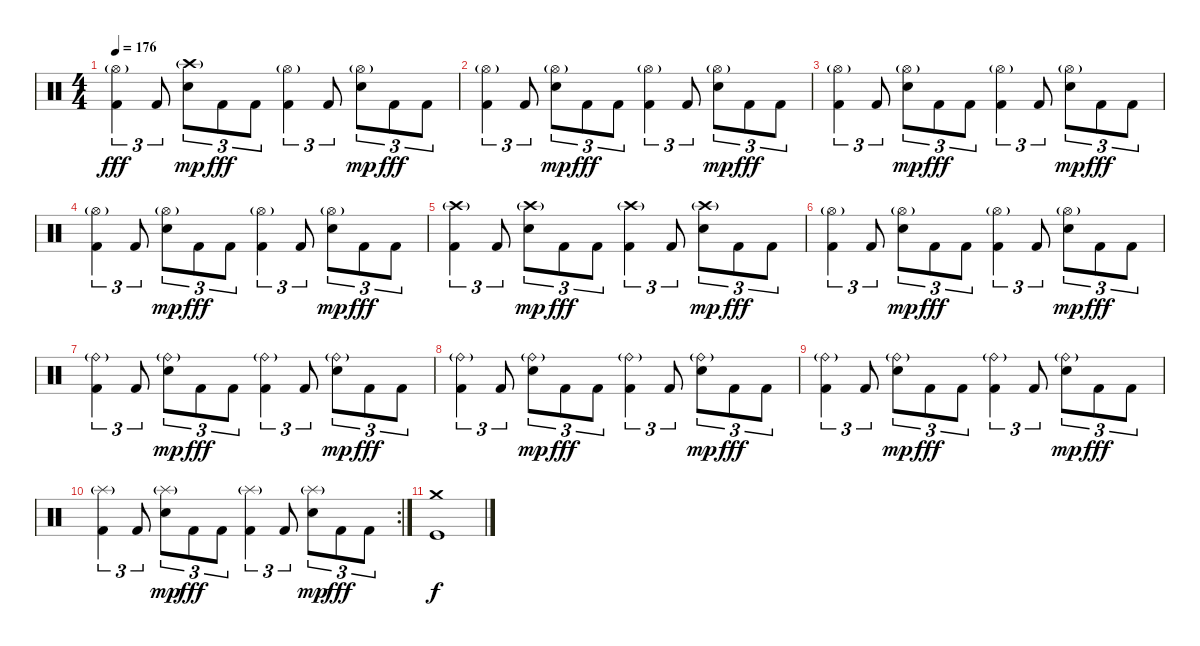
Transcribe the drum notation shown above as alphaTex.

\track "" {instrument percussion}
\staff {score}
\articulation defaults
\ts (4 4)
\tempo 176
\clef neutral
\ks c
("Hi-Hat (open)"{g} "Kick (hit) 2").4{tu (3 2) dy fff} "Kick (hit) 2".8{tu (3 2)} ("Crash high (hit)"{g} "Snare (hit) 2").8{tu (3 2) dy mp} "Kick (hit) 2".8{tu (3 2) dy fff} "Kick (hit) 2".8{tu (3 2)} ("Hi-Hat (open)"{g} "Kick (hit) 2").4{tu (3 2)} "Kick (hit) 2".8{tu (3 2)} ("Hi-Hat (open)"{g} "Snare (hit) 2").8{tu (3 2) dy mp} "Kick (hit) 2".8{tu (3 2) dy fff} "Kick (hit) 2".8{tu (3 2)} |
("Hi-Hat (open)"{g} "Kick (hit) 2").4{tu (3 2)} "Kick (hit) 2".8{tu (3 2)} ("Hi-Hat (open)"{g} "Snare (hit) 2").8{tu (3 2) dy mp} "Kick (hit) 2".8{tu (3 2) dy fff} "Kick (hit) 2".8{tu (3 2)} ("Hi-Hat (open)"{g} "Kick (hit) 2").4{tu (3 2)} "Kick (hit) 2".8{tu (3 2)} ("Hi-Hat (open)"{g} "Snare (hit) 2").8{tu (3 2) dy mp} "Kick (hit) 2".8{tu (3 2) dy fff} "Kick (hit) 2".8{tu (3 2)} |
("Hi-Hat (open)"{g} "Kick (hit) 2").4{tu (3 2)} "Kick (hit) 2".8{tu (3 2)} ("Hi-Hat (open)"{g} "Snare (hit) 2").8{tu (3 2) dy mp} "Kick (hit) 2".8{tu (3 2) dy fff} "Kick (hit) 2".8{tu (3 2)} ("Hi-Hat (open)"{g} "Kick (hit) 2").4{tu (3 2)} "Kick (hit) 2".8{tu (3 2)} ("Hi-Hat (open)"{g} "Snare (hit) 2").8{tu (3 2) dy mp} "Kick (hit) 2".8{tu (3 2) dy fff} "Kick (hit) 2".8{tu (3 2)} |
("Hi-Hat (open)"{g} "Kick (hit) 2").4{tu (3 2)} "Kick (hit) 2".8{tu (3 2)} ("Hi-Hat (open)"{g} "Snare (hit) 2").8{tu (3 2) dy mp} "Kick (hit) 2".8{tu (3 2) dy fff} "Kick (hit) 2".8{tu (3 2)} ("Hi-Hat (open)"{g} "Kick (hit) 2").4{tu (3 2)} "Kick (hit) 2".8{tu (3 2)} ("Hi-Hat (open)"{g} "Snare (hit) 2").8{tu (3 2) dy mp} "Kick (hit) 2".8{tu (3 2) dy fff} "Kick (hit) 2".8{tu (3 2)} |
("Crash high (hit)"{g} "Kick (hit) 2").4{tu (3 2)} "Kick (hit) 2".8{tu (3 2)} ("Crash high (hit)"{g} "Snare (hit) 2").8{tu (3 2) dy mp} "Kick (hit) 2".8{tu (3 2) dy fff} "Kick (hit) 2".8{tu (3 2)} ("Crash high (hit)"{g} "Kick (hit) 2").4{tu (3 2)} "Kick (hit) 2".8{tu (3 2)} ("Crash high (hit)"{g} "Snare (hit) 2").8{tu (3 2) dy mp} "Kick (hit) 2".8{tu (3 2) dy fff} "Kick (hit) 2".8{tu (3 2)} |
("Hi-Hat (open)"{g} "Kick (hit) 2").4{tu (3 2)} "Kick (hit) 2".8{tu (3 2)} ("Hi-Hat (open)"{g} "Snare (hit) 2").8{tu (3 2) dy mp} "Kick (hit) 2".8{tu (3 2) dy fff} "Kick (hit) 2".8{tu (3 2)} ("Hi-Hat (open)"{g} "Kick (hit) 2").4{tu (3 2)} "Kick (hit) 2".8{tu (3 2)} ("Hi-Hat (open)"{g} "Snare (hit) 2").8{tu (3 2) dy mp} "Kick (hit) 2".8{tu (3 2) dy fff} "Kick (hit) 2".8{tu (3 2)} |
("Ride (bell)"{g} "Kick (hit) 2").4{tu (3 2)} "Kick (hit) 2".8{tu (3 2)} ("Ride (bell)"{g} "Snare (hit) 2").8{tu (3 2) dy mp} "Kick (hit) 2".8{tu (3 2) dy fff} "Kick (hit) 2".8{tu (3 2)} ("Ride (bell)"{g} "Kick (hit) 2").4{tu (3 2)} "Kick (hit) 2".8{tu (3 2)} ("Ride (bell)"{g} "Snare (hit) 2").8{tu (3 2) dy mp} "Kick (hit) 2".8{tu (3 2) dy fff} "Kick (hit) 2".8{tu (3 2)} |
("Ride (bell)"{g} "Kick (hit) 2").4{tu (3 2)} "Kick (hit) 2".8{tu (3 2)} ("Ride (bell)"{g} "Snare (hit) 2").8{tu (3 2) dy mp} "Kick (hit) 2".8{tu (3 2) dy fff} "Kick (hit) 2".8{tu (3 2)} ("Ride (bell)"{g} "Kick (hit) 2").4{tu (3 2)} "Kick (hit) 2".8{tu (3 2)} ("Ride (bell)"{g} "Snare (hit) 2").8{tu (3 2) dy mp} "Kick (hit) 2".8{tu (3 2) dy fff} "Kick (hit) 2".8{tu (3 2)} |
("Ride (bell)"{g} "Kick (hit) 2").4{tu (3 2)} "Kick (hit) 2".8{tu (3 2)} ("Ride (bell)"{g} "Snare (hit) 2").8{tu (3 2) dy mp} "Kick (hit) 2".8{tu (3 2) dy fff} "Kick (hit) 2".8{tu (3 2)} ("Ride (bell)"{g} "Kick (hit) 2").4{tu (3 2)} "Kick (hit) 2".8{tu (3 2)} ("Ride (bell)"{g} "Snare (hit) 2").8{tu (3 2) dy mp} "Kick (hit) 2".8{tu (3 2) dy fff} "Kick (hit) 2".8{tu (3 2)} |
\rc 2
("Splash (hit)"{g} "Kick (hit) 2").4{tu (3 2)} "Kick (hit) 2".8{tu (3 2)} ("Splash (hit)"{g} "Snare (hit) 2").8{tu (3 2) dy mp} "Kick (hit) 2".8{tu (3 2) dy fff} "Kick (hit) 2".8{tu (3 2)} ("Splash (hit)"{g} "Kick (hit) 2").4{tu (3 2)} "Kick (hit) 2".8{tu (3 2)} ("Splash (hit)"{g} "Snare (hit) 2").8{tu (3 2) dy mp} "Kick (hit) 2".8{tu (3 2) dy fff} "Kick (hit) 2".8{tu (3 2)} |
("Crash medium (hit)" "Kick (hit)").1{dy f}
